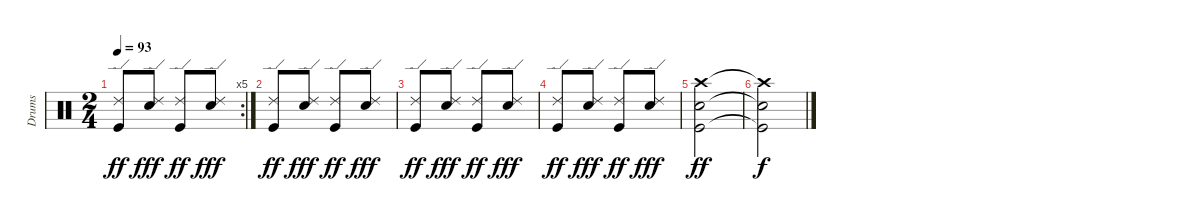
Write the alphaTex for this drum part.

\track ("Drums" "Drums") {instrument percussion}
\staff {score}
\articulation defaults
\rc 5
\ts (2 4)
\tempo 93
\clef neutral
\ks c
("Ride (edge) 2" "Kick (hit)").8{dy ff} ("Ride (edge) 2" "Snare (hit) 2").8{dy fff} ("Ride (edge) 2" "Kick (hit)").8{dy ff} ("Ride (edge) 2" "Snare (hit) 2").8{dy fff} |
("Ride (edge) 2" "Kick (hit)").8{dy ff} ("Ride (edge) 2" "Snare (hit) 2").8{dy fff} ("Ride (edge) 2" "Kick (hit)").8{dy ff} ("Ride (edge) 2" "Snare (hit) 2").8{dy fff} |
("Ride (edge) 2" "Kick (hit)").8{dy ff} ("Ride (edge) 2" "Snare (hit) 2").8{dy fff} ("Ride (edge) 2" "Kick (hit)").8{dy ff} ("Ride (edge) 2" "Snare (hit) 2").8{dy fff} |
("Ride (edge) 2" "Kick (hit)").8{dy ff} ("Ride (edge) 2" "Snare (hit) 2").8{dy fff} ("Ride (edge) 2" "Kick (hit)").8{dy ff} ("Ride (edge) 2" "Snare (hit) 2").8{dy fff} |
("Crash high (hit)" "Snare (hit) 2" "Kick (hit)").2{dy ff} |
("Crash high (hit)"{t} "Snare (hit) 2"{t} "Kick (hit)"{t}).2{dy f}
